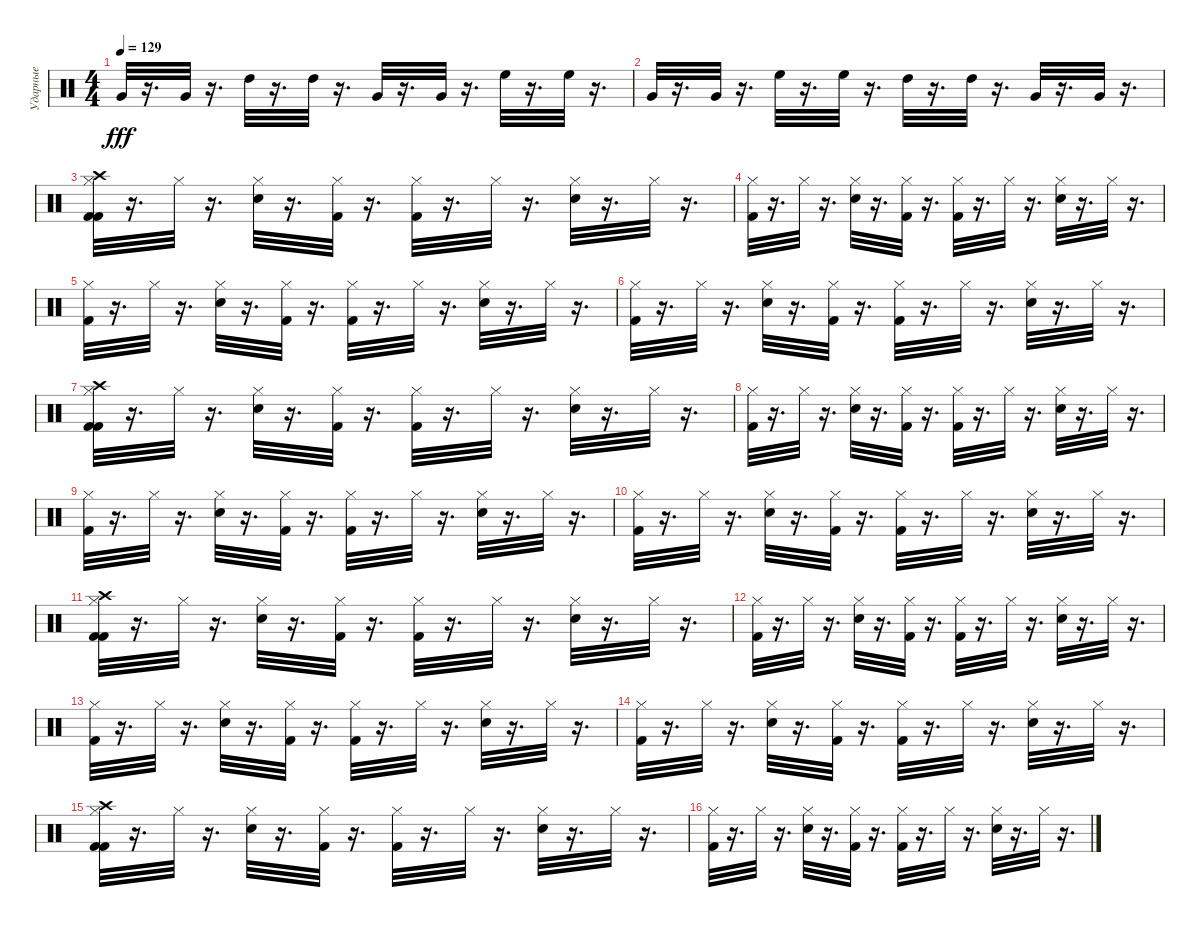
\track ("Ударные" "Ударные") {instrument percussion}
\staff {score}
\articulation defaults
\ts (4 4)
\tempo 129
\clef neutral
\ks c "Very Low Tom (hit)".32{dy fff balance 5}
r.16{d} "Very Low Tom (hit)".32{balance 5} r.16{d} "High Tom (hit)".32{balance 11} r.16{d} "High Tom (hit)".32{balance 11} r.16{d} "Very Low Tom (hit)".32{balance 5} r.16{d} "Very Low Tom (hit)".32{balance 5} r.16{d} "High Floor Tom (hit)".32{balance 8} r.16{d} "High Floor Tom (hit)".32{balance 8} r.16{d} |
"Very Low Tom (hit)".32{balance 5} r.16{d} "Very Low Tom (hit)".32{balance 5} r.16{d} "High Floor Tom (hit)".32{balance 8} r.16{d} "High Floor Tom (hit)".32{balance 8} r.16{d} "High Tom (hit)".32{balance 11} r.16{d} "High Tom (hit)".32{balance 11} r.16{d} "Very Low Tom (hit)".32{balance 5} r.16{d} "Very Low Tom (hit)".32{balance 5} r.16{d} |
("Kick (hit) 2" "Crash high (hit)" "Kick (hit) 2" "Hi-Hat (closed)").32{balance 10} r.16{d} "Hi-Hat (closed)".32{balance 10} r.16{d} ("Electric Snare (hit)" "Hi-Hat (closed)").32{balance 10} r.16{d} ("Kick (hit) 2" "Hi-Hat (closed)").32{balance 10} r.16{d} ("Kick (hit) 2" "Hi-Hat (closed)").32{balance 10} r.16{d} "Hi-Hat (closed)".32{balance 10} r.16{d} ("Electric Snare (hit)" "Hi-Hat (closed)").32{balance 10} r.16{d} "Hi-Hat (closed)".32{balance 10} r.16{d} |
("Kick (hit) 2" "Hi-Hat (closed)").32{balance 10} r.16{d} "Hi-Hat (closed)".32{balance 10} r.16{d} ("Electric Snare (hit)" "Hi-Hat (closed)").32{balance 10} r.16{d} ("Kick (hit) 2" "Hi-Hat (closed)").32{balance 10} r.16{d} ("Kick (hit) 2" "Hi-Hat (closed)").32{balance 10} r.16{d} "Hi-Hat (closed)".32{balance 10} r.16{d} ("Electric Snare (hit)" "Hi-Hat (closed)").32{balance 10} r.16{d} "Hi-Hat (closed)".32{balance 10} r.16{d} |
("Kick (hit) 2" "Hi-Hat (closed)").32{balance 10} r.16{d} "Hi-Hat (closed)".32{balance 10} r.16{d} ("Electric Snare (hit)" "Hi-Hat (closed)").32{balance 10} r.16{d} ("Kick (hit) 2" "Hi-Hat (closed)").32{balance 10} r.16{d} ("Kick (hit) 2" "Hi-Hat (closed)").32{balance 10} r.16{d} "Hi-Hat (closed)".32{balance 10} r.16{d} ("Electric Snare (hit)" "Hi-Hat (closed)").32{balance 10} r.16{d} "Hi-Hat (closed)".32{balance 10} r.16{d} |
("Kick (hit) 2" "Hi-Hat (closed)").32{balance 10} r.16{d} "Hi-Hat (closed)".32{balance 10} r.16{d} ("Electric Snare (hit)" "Hi-Hat (closed)").32{balance 10} r.16{d} ("Kick (hit) 2" "Hi-Hat (closed)").32{balance 10} r.16{d} ("Kick (hit) 2" "Hi-Hat (closed)").32{balance 10} r.16{d} "Hi-Hat (closed)".32{balance 10} r.16{d} ("Electric Snare (hit)" "Hi-Hat (closed)").32{balance 10} r.16{d} "Hi-Hat (closed)".32{balance 10} r.16{d} |
("Kick (hit) 2" "Crash high (hit)" "Kick (hit) 2" "Hi-Hat (closed)").32{balance 10} r.16{d} "Hi-Hat (closed)".32{balance 10} r.16{d} ("Electric Snare (hit)" "Hi-Hat (closed)").32{balance 10} r.16{d} ("Kick (hit) 2" "Hi-Hat (closed)").32{balance 10} r.16{d} ("Kick (hit) 2" "Hi-Hat (closed)").32{balance 10} r.16{d} "Hi-Hat (closed)".32{balance 10} r.16{d} ("Electric Snare (hit)" "Hi-Hat (closed)").32{balance 10} r.16{d} "Hi-Hat (closed)".32{balance 10} r.16{d} |
("Kick (hit) 2" "Hi-Hat (closed)").32{balance 10} r.16{d} "Hi-Hat (closed)".32{balance 10} r.16{d} ("Electric Snare (hit)" "Hi-Hat (closed)").32{balance 10} r.16{d} ("Kick (hit) 2" "Hi-Hat (closed)").32{balance 10} r.16{d} ("Kick (hit) 2" "Hi-Hat (closed)").32{balance 10} r.16{d} "Hi-Hat (closed)".32{balance 10} r.16{d} ("Electric Snare (hit)" "Hi-Hat (closed)").32{balance 10} r.16{d} "Hi-Hat (closed)".32{balance 10} r.16{d} |
("Kick (hit) 2" "Hi-Hat (closed)").32{balance 10} r.16{d} "Hi-Hat (closed)".32{balance 10} r.16{d} ("Electric Snare (hit)" "Hi-Hat (closed)").32{balance 10} r.16{d} ("Kick (hit) 2" "Hi-Hat (closed)").32{balance 10} r.16{d} ("Kick (hit) 2" "Hi-Hat (closed)").32{balance 10} r.16{d} "Hi-Hat (closed)".32{balance 10} r.16{d} ("Electric Snare (hit)" "Hi-Hat (closed)").32{balance 10} r.16{d} "Hi-Hat (closed)".32{balance 10} r.16{d} |
("Kick (hit) 2" "Hi-Hat (closed)").32{balance 10} r.16{d} "Hi-Hat (closed)".32{balance 10} r.16{d} ("Electric Snare (hit)" "Hi-Hat (closed)").32{balance 10} r.16{d} ("Kick (hit) 2" "Hi-Hat (closed)").32{balance 10} r.16{d} ("Kick (hit) 2" "Hi-Hat (closed)").32{balance 10} r.16{d} "Hi-Hat (closed)".32{balance 10} r.16{d} ("Electric Snare (hit)" "Hi-Hat (closed)").32{balance 10} r.16{d} "Hi-Hat (closed)".32{balance 10} r.16{d} |
("Kick (hit) 2" "Crash high (hit)" "Kick (hit) 2" "Hi-Hat (closed)").32{balance 10} r.16{d} "Hi-Hat (closed)".32{balance 10} r.16{d} ("Electric Snare (hit)" "Hi-Hat (closed)").32{balance 10} r.16{d} ("Kick (hit) 2" "Hi-Hat (closed)").32{balance 10} r.16{d} ("Kick (hit) 2" "Hi-Hat (closed)").32{balance 10} r.16{d} "Hi-Hat (closed)".32{balance 10} r.16{d} ("Electric Snare (hit)" "Hi-Hat (closed)").32{balance 10} r.16{d} "Hi-Hat (closed)".32{balance 10} r.16{d} |
("Kick (hit) 2" "Hi-Hat (closed)").32{balance 10} r.16{d} "Hi-Hat (closed)".32{balance 10} r.16{d} ("Electric Snare (hit)" "Hi-Hat (closed)").32{balance 10} r.16{d} ("Kick (hit) 2" "Hi-Hat (closed)").32{balance 10} r.16{d} ("Kick (hit) 2" "Hi-Hat (closed)").32{balance 10} r.16{d} "Hi-Hat (closed)".32{balance 10} r.16{d} ("Electric Snare (hit)" "Hi-Hat (closed)").32{balance 10} r.16{d} "Hi-Hat (closed)".32{balance 10} r.16{d} |
("Kick (hit) 2" "Hi-Hat (closed)").32{balance 10} r.16{d} "Hi-Hat (closed)".32{balance 10} r.16{d} ("Electric Snare (hit)" "Hi-Hat (closed)").32{balance 10} r.16{d} ("Kick (hit) 2" "Hi-Hat (closed)").32{balance 10} r.16{d} ("Kick (hit) 2" "Hi-Hat (closed)").32{balance 10} r.16{d} "Hi-Hat (closed)".32{balance 10} r.16{d} ("Electric Snare (hit)" "Hi-Hat (closed)").32{balance 10} r.16{d} "Hi-Hat (closed)".32{balance 10} r.16{d} |
("Kick (hit) 2" "Hi-Hat (closed)").32{balance 10} r.16{d} "Hi-Hat (closed)".32{balance 10} r.16{d} ("Electric Snare (hit)" "Hi-Hat (closed)").32{balance 10} r.16{d} ("Kick (hit) 2" "Hi-Hat (closed)").32{balance 10} r.16{d} ("Kick (hit) 2" "Hi-Hat (closed)").32{balance 10} r.16{d} "Hi-Hat (closed)".32{balance 10} r.16{d} ("Electric Snare (hit)" "Hi-Hat (closed)").32{balance 10} r.16{d} "Hi-Hat (closed)".32{balance 10} r.16{d} |
("Kick (hit) 2" "Crash high (hit)" "Kick (hit) 2" "Hi-Hat (closed)").32{balance 10} r.16{d} "Hi-Hat (closed)".32{balance 10} r.16{d} ("Electric Snare (hit)" "Hi-Hat (closed)").32{balance 10} r.16{d} ("Kick (hit) 2" "Hi-Hat (closed)").32{balance 10} r.16{d} ("Kick (hit) 2" "Hi-Hat (closed)").32{balance 10} r.16{d} "Hi-Hat (closed)".32{balance 10} r.16{d} ("Electric Snare (hit)" "Hi-Hat (closed)").32{balance 10} r.16{d} "Hi-Hat (closed)".32{balance 10} r.16{d} |
("Kick (hit) 2" "Hi-Hat (closed)").32{balance 10} r.16{d} "Hi-Hat (closed)".32{balance 10} r.16{d} ("Electric Snare (hit)" "Hi-Hat (closed)").32{balance 10} r.16{d} ("Kick (hit) 2" "Hi-Hat (closed)").32{balance 10} r.16{d} ("Kick (hit) 2" "Hi-Hat (closed)").32{balance 10} r.16{d} "Hi-Hat (closed)".32{balance 10} r.16{d} ("Electric Snare (hit)" "Hi-Hat (closed)").32{balance 10} r.16{d} "Hi-Hat (closed)".32{balance 10} r.16{d}
